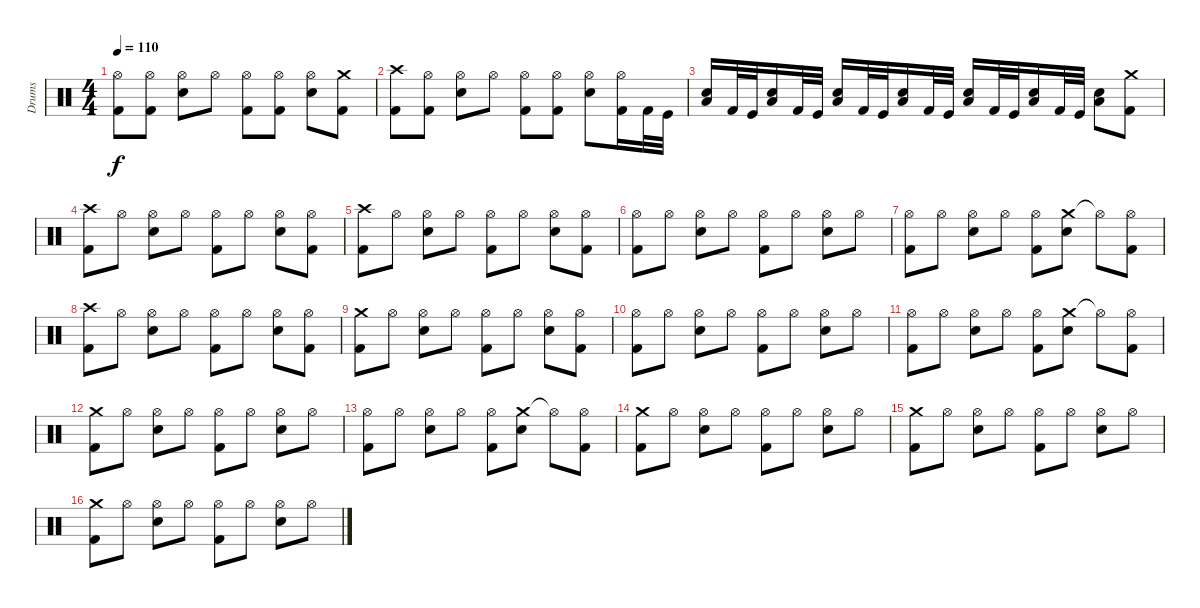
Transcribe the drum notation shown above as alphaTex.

\track ("Drums" "Drums") {instrument percussion}
\staff {score}
\articulation defaults
\ts (4 4)
\tempo 110
\clef neutral
\ks c
("Hi-Hat (open)" "Kick (hit) 2").8{dy f} ("Hi-Hat (open)" "Kick (hit) 2").8 ("Hi-Hat (open)" "Snare (hit) 2").8 "Hi-Hat (open)".8 ("Hi-Hat (open)" "Kick (hit) 2").8 ("Hi-Hat (open)" "Kick (hit) 2").8 ("Hi-Hat (open)" "Snare (hit) 2").8 ("Crash medium (hit)" "Kick (hit) 2").8 |
("Crash high (hit)" "Kick (hit) 2").8 ("Hi-Hat (open)" "Kick (hit) 2").8 ("Hi-Hat (open)" "Snare (hit) 2").8 "Hi-Hat (open)".8 ("Hi-Hat (open)" "Kick (hit) 2").8 ("Hi-Hat (open)" "Kick (hit) 2").8 ("Hi-Hat (open)" "Snare (hit) 2").8 ("Hi-Hat (open)" "Kick (hit) 2").16 "Kick (hit) 2".32 "Kick (hit)".32 |
("Low Floor Tom (hit)" "Snare (hit) 2").16 "Kick (hit) 2".32 "Kick (hit)".32 ("Low Floor Tom (hit)" "Snare (hit) 2").16 "Kick (hit) 2".32 "Kick (hit)".32 ("Low Floor Tom (hit)" "Snare (hit) 2").16 "Kick (hit) 2".32 "Kick (hit)".32 ("Low Floor Tom (hit)" "Snare (hit) 2").16 "Kick (hit) 2".32 "Kick (hit)".32 ("Low Floor Tom (hit)" "Snare (hit) 2").16 "Kick (hit) 2".32 "Kick (hit)".32 ("Low Floor Tom (hit)" "Snare (hit) 2").16 "Kick (hit) 2".32 "Kick (hit)".32 ("Low Floor Tom (hit)" "Snare (hit) 2").8 ("Crash medium (hit)" "Kick (hit) 2").8 |
("Crash high (hit)" "Kick (hit) 2").8 "Hi-Hat (open)".8 ("Hi-Hat (open)" "Snare (hit) 2").8 "Hi-Hat (open)".8 ("Hi-Hat (open)" "Kick (hit) 2").8 "Hi-Hat (open)".8 ("Hi-Hat (open)" "Snare (hit) 2").8 ("Hi-Hat (open)" "Kick (hit) 2").8 |
("Crash high (hit)" "Kick (hit) 2").8 "Hi-Hat (open)".8 ("Hi-Hat (open)" "Snare (hit) 2").8 "Hi-Hat (open)".8 ("Hi-Hat (open)" "Kick (hit) 2").8 "Hi-Hat (open)".8 ("Hi-Hat (open)" "Snare (hit) 2").8 ("Hi-Hat (open)" "Kick (hit) 2").8 |
("Hi-Hat (open)" "Kick (hit) 2").8 "Hi-Hat (open)".8 ("Hi-Hat (open)" "Snare (hit) 2").8 "Hi-Hat (open)".8 ("Hi-Hat (open)" "Kick (hit) 2").8 "Hi-Hat (open)".8 ("Hi-Hat (open)" "Snare (hit) 2").8 "Hi-Hat (open)".8 |
("Hi-Hat (open)" "Kick (hit) 2").8 "Hi-Hat (open)".8 ("Hi-Hat (open)" "Snare (hit) 2").8 "Hi-Hat (open)".8 ("Hi-Hat (open)" "Kick (hit) 2").8 ("Crash medium (hit)" "Snare (hit) 2").8 "Hi-Hat (open)"{t}.8 ("Hi-Hat (open)" "Kick (hit) 2").8 |
("Crash high (hit)" "Kick (hit) 2").8 "Hi-Hat (open)".8 ("Hi-Hat (open)" "Snare (hit) 2").8 "Hi-Hat (open)".8 ("Hi-Hat (open)" "Kick (hit) 2").8 "Hi-Hat (open)".8 ("Hi-Hat (open)" "Snare (hit) 2").8 ("Hi-Hat (open)" "Kick (hit) 2").8 |
("Crash medium (hit)" "Kick (hit) 2").8 "Hi-Hat (open)".8 ("Hi-Hat (open)" "Snare (hit) 2").8 "Hi-Hat (open)".8 ("Hi-Hat (open)" "Kick (hit) 2").8 "Hi-Hat (open)".8 ("Hi-Hat (open)" "Snare (hit) 2").8 ("Hi-Hat (open)" "Kick (hit) 2").8 |
("Hi-Hat (open)" "Kick (hit) 2").8 "Hi-Hat (open)".8 ("Hi-Hat (open)" "Snare (hit) 2").8 "Hi-Hat (open)".8 ("Hi-Hat (open)" "Kick (hit) 2").8 "Hi-Hat (open)".8 ("Hi-Hat (open)" "Snare (hit) 2").8 "Hi-Hat (open)".8 |
("Hi-Hat (open)" "Kick (hit) 2").8 "Hi-Hat (open)".8 ("Hi-Hat (open)" "Snare (hit) 2").8 "Hi-Hat (open)".8 ("Hi-Hat (open)" "Kick (hit) 2").8 ("Crash medium (hit)" "Snare (hit) 2").8 "Hi-Hat (open)"{t}.8 ("Hi-Hat (open)" "Kick (hit) 2").8 |
("Crash medium (hit)" "Kick (hit) 2").8 "Hi-Hat (open)".8 ("Hi-Hat (open)" "Snare (hit) 2").8 "Hi-Hat (open)".8 ("Hi-Hat (open)" "Kick (hit) 2").8 "Hi-Hat (open)".8 ("Hi-Hat (open)" "Snare (hit) 2").8 "Hi-Hat (open)".8 |
("Hi-Hat (open)" "Kick (hit) 2").8 "Hi-Hat (open)".8 ("Hi-Hat (open)" "Snare (hit) 2").8 "Hi-Hat (open)".8 ("Hi-Hat (open)" "Kick (hit) 2").8 ("Crash medium (hit)" "Snare (hit) 2").8 "Hi-Hat (open)"{t}.8 ("Hi-Hat (open)" "Kick (hit) 2").8 |
("Crash medium (hit)" "Kick (hit) 2").8 "Hi-Hat (open)".8 ("Hi-Hat (open)" "Snare (hit) 2").8 "Hi-Hat (open)".8 ("Hi-Hat (open)" "Kick (hit) 2").8 "Hi-Hat (open)".8 ("Hi-Hat (open)" "Snare (hit) 2").8 "Hi-Hat (open)".8 |
("Crash medium (hit)" "Kick (hit) 2").8 "Hi-Hat (open)".8 ("Hi-Hat (open)" "Snare (hit) 2").8 "Hi-Hat (open)".8 ("Hi-Hat (open)" "Kick (hit) 2").8 "Hi-Hat (open)".8 ("Hi-Hat (open)" "Snare (hit) 2").8 "Hi-Hat (open)".8 |
("Crash medium (hit)" "Kick (hit) 2").8 "Hi-Hat (open)".8 ("Hi-Hat (open)" "Snare (hit) 2").8 "Hi-Hat (open)".8 ("Hi-Hat (open)" "Kick (hit) 2").8 "Hi-Hat (open)".8 ("Hi-Hat (open)" "Snare (hit) 2").8 "Hi-Hat (open)".8
